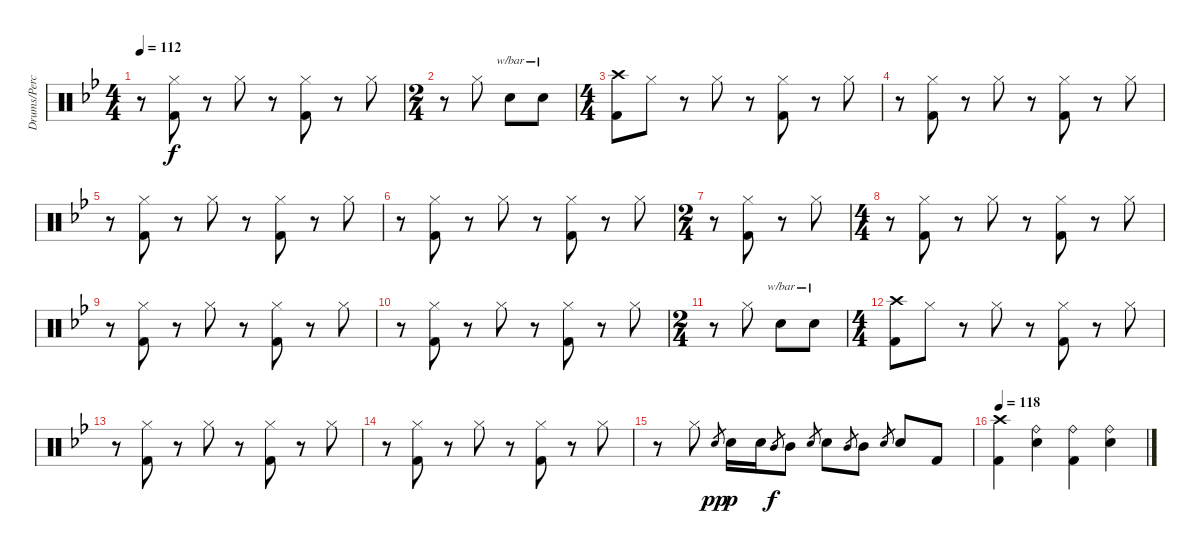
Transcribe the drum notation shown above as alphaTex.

\track ("Drums/Percussion (Bengerg)" "Drums/Perc") {instrument percussion}
\staff {score}
\articulation defaults
\ts (4 4)
\tempo 112
\clef neutral
\ks bb
r.8{dy f} ("Hi-Hat (closed)" "Kick (hit) 2").8 r.8 "Hi-Hat (closed)".8 r.8 ("Hi-Hat (closed)" "Kick (hit) 2").8 r.8 "Hi-Hat (closed)".8 |
\ts (2 4)
r.8 "Hi-Hat (closed)".8 "Electric Snare (hit)".8{tbe (custom default 0 12 45 12 60 0) balance 16} "Electric Snare (hit)".8{tbe (custom default 0 12 45 12 60 0) balance 0} |
\ts (4 4)
("Crash high (hit)" "Kick (hit) 2").8{balance 8} "Hi-Hat (closed)".8 r.8 "Hi-Hat (closed)".8 r.8 ("Hi-Hat (closed)" "Kick (hit) 2").8 r.8 "Hi-Hat (closed)".8 |
r.8 ("Hi-Hat (closed)" "Kick (hit) 2").8 r.8 "Hi-Hat (closed)".8 r.8 ("Hi-Hat (closed)" "Kick (hit) 2").8 r.8 "Hi-Hat (closed)".8 |
r.8 ("Hi-Hat (closed)" "Kick (hit) 2").8 r.8 "Hi-Hat (closed)".8 r.8 ("Hi-Hat (closed)" "Kick (hit) 2").8 r.8 "Hi-Hat (closed)".8 |
r.8 ("Hi-Hat (closed)" "Kick (hit) 2").8 r.8 "Hi-Hat (closed)".8 r.8 ("Hi-Hat (closed)" "Kick (hit) 2").8 r.8 "Hi-Hat (closed)".8 |
\ts (2 4)
r.8 ("Hi-Hat (closed)" "Kick (hit) 2").8 r.8 "Hi-Hat (closed)".8 |
\ts (4 4)
r.8 ("Hi-Hat (closed)" "Kick (hit) 2").8 r.8 "Hi-Hat (closed)".8 r.8 ("Hi-Hat (closed)" "Kick (hit) 2").8 r.8 "Hi-Hat (closed)".8 |
r.8 ("Hi-Hat (closed)" "Kick (hit) 2").8 r.8 "Hi-Hat (closed)".8 r.8 ("Hi-Hat (closed)" "Kick (hit) 2").8 r.8 "Hi-Hat (closed)".8 |
r.8 ("Hi-Hat (closed)" "Kick (hit) 2").8 r.8 "Hi-Hat (closed)".8 r.8 ("Hi-Hat (closed)" "Kick (hit) 2").8 r.8 "Hi-Hat (closed)".8 |
\ts (2 4)
r.8 "Hi-Hat (closed)".8 "Electric Snare (hit)".8{tbe (custom default 0 12 45 12 60 0) balance 16} "Electric Snare (hit)".8{tbe (custom default 0 12 45 12 60 0) balance 0} |
\ts (4 4)
("Crash high (hit)" "Kick (hit) 2").8{balance 8} "Hi-Hat (closed)".8 r.8 "Hi-Hat (closed)".8 r.8 ("Hi-Hat (closed)" "Kick (hit) 2").8 r.8 "Hi-Hat (closed)".8 |
r.8 ("Hi-Hat (closed)" "Kick (hit) 2").8 r.8 "Hi-Hat (closed)".8 r.8 ("Hi-Hat (closed)" "Kick (hit) 2").8 r.8 "Hi-Hat (closed)".8 |
r.8 ("Hi-Hat (closed)" "Kick (hit) 2").8 r.8 "Hi-Hat (closed)".8 r.8 ("Hi-Hat (closed)" "Kick (hit) 2").8 r.8 "Hi-Hat (closed)".8 |
r.8 "Hi-Hat (closed)".8 "Electric Snare (hit)".8{gr dy pp} "Electric Snare (hit)".16{dy p} "Electric Snare (hit)".16 "Mid Tom (hit)".8{gr dy f} "Mid Tom (hit)".8 "Electric Snare (hit)".8{gr} "Electric Snare (hit)".8 "Mid Tom (hit)".8{gr} "Mid Tom (hit)".8 "Electric Snare (hit)".8{gr} "Electric Snare (hit)".8 "Kick (hit) 2".8 |
\tempo 118
("Crash high (hit)" "Kick (hit) 2").4 ("Ride (bell)" "Electric Snare (hit)").4 ("Ride (bell)" "Kick (hit) 2").4 ("Ride (bell)" "Electric Snare (hit)").4
